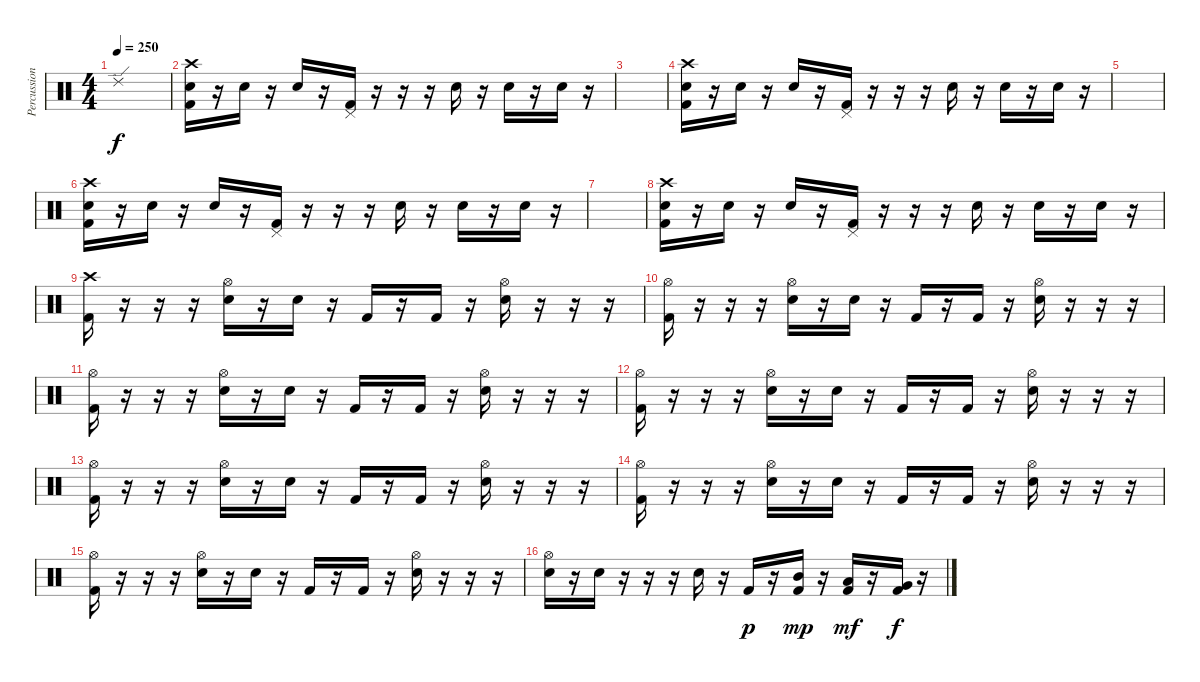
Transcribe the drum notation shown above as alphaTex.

\track ("Percussion" "Percussion") {instrument percussion}
\staff {score}
\articulation defaults
\ts (4 4)
\tempo 250
\clef neutral
\ks c "Ride (edge) 2".1{dy f}
|
("Crash high (hit)" "Kick (hit) 2" "Snare (hit) 2").16 r.16 "Snare (hit) 2".16 r.16 "Snare (hit) 2".16 r.16 ("Pedal Hi-Hat (hit)" "Kick (hit) 2").16 r.16 r.16 r.16 "Snare (hit) 2".16 r.16 "Snare (hit) 2".16 r.16 "Snare (hit) 2".16 r.16 |
|
("Crash high (hit)" "Kick (hit) 2" "Snare (hit) 2").16 r.16 "Snare (hit) 2".16 r.16 "Snare (hit) 2".16 r.16 ("Pedal Hi-Hat (hit)" "Kick (hit) 2").16 r.16 r.16 r.16 "Snare (hit) 2".16 r.16 "Snare (hit) 2".16 r.16 "Snare (hit) 2".16 r.16 |
|
("Crash high (hit)" "Kick (hit) 2" "Snare (hit) 2").16 r.16 "Snare (hit) 2".16 r.16 "Snare (hit) 2".16 r.16 ("Pedal Hi-Hat (hit)" "Kick (hit) 2").16 r.16 r.16 r.16 "Snare (hit) 2".16 r.16 "Snare (hit) 2".16 r.16 "Snare (hit) 2".16 r.16 |
|
("Crash high (hit)" "Kick (hit) 2" "Snare (hit) 2").16 r.16 "Snare (hit) 2".16 r.16 "Snare (hit) 2".16 r.16 ("Pedal Hi-Hat (hit)" "Kick (hit) 2").16 r.16 r.16 r.16 "Snare (hit) 2".16 r.16 "Snare (hit) 2".16 r.16 "Snare (hit) 2".16 r.16 |
("Crash high (hit)" "Kick (hit) 2").16 r.16 r.16 r.16 ("Hi-Hat (open)" "Snare (hit) 2").16 r.16 "Snare (hit) 2".16 r.16 "Kick (hit) 2".16 r.16 "Kick (hit) 2".16 r.16 ("Hi-Hat (open)" "Snare (hit) 2").16 r.16 r.16 r.16 |
("Hi-Hat (open)" "Kick (hit) 2").16 r.16 r.16 r.16 ("Hi-Hat (open)" "Snare (hit) 2").16 r.16 "Snare (hit) 2".16 r.16 "Kick (hit) 2".16 r.16 "Kick (hit) 2".16 r.16 ("Hi-Hat (open)" "Snare (hit) 2").16 r.16 r.16 r.16 |
("Hi-Hat (open)" "Kick (hit) 2").16 r.16 r.16 r.16 ("Hi-Hat (open)" "Snare (hit) 2").16 r.16 "Snare (hit) 2".16 r.16 "Kick (hit) 2".16 r.16 "Kick (hit) 2".16 r.16 ("Hi-Hat (open)" "Snare (hit) 2").16 r.16 r.16 r.16 |
("Hi-Hat (open)" "Kick (hit) 2").16 r.16 r.16 r.16 ("Hi-Hat (open)" "Snare (hit) 2").16 r.16 "Snare (hit) 2".16 r.16 "Kick (hit) 2".16 r.16 "Kick (hit) 2".16 r.16 ("Hi-Hat (open)" "Snare (hit) 2").16 r.16 r.16 r.16 |
("Hi-Hat (open)" "Kick (hit) 2").16 r.16 r.16 r.16 ("Hi-Hat (open)" "Snare (hit) 2").16 r.16 "Snare (hit) 2".16 r.16 "Kick (hit) 2".16 r.16 "Kick (hit) 2".16 r.16 ("Hi-Hat (open)" "Snare (hit) 2").16 r.16 r.16 r.16 |
("Hi-Hat (open)" "Kick (hit) 2").16 r.16 r.16 r.16 ("Hi-Hat (open)" "Snare (hit) 2").16 r.16 "Snare (hit) 2".16 r.16 "Kick (hit) 2".16 r.16 "Kick (hit) 2".16 r.16 ("Hi-Hat (open)" "Snare (hit) 2").16 r.16 r.16 r.16 |
("Hi-Hat (open)" "Kick (hit) 2").16 r.16 r.16 r.16 ("Hi-Hat (open)" "Snare (hit) 2").16 r.16 "Snare (hit) 2".16 r.16 "Kick (hit) 2".16 r.16 "Kick (hit) 2".16 r.16 ("Hi-Hat (open)" "Snare (hit) 2").16 r.16 r.16 r.16 |
("Hi-Hat (open)" "Snare (hit) 2").16 r.16 "Snare (hit) 2".16 r.16 r.16 r.16 "Snare (hit) 2".16 r.16 "Kick (hit) 2".16{dy p} r.16 ("Mid Tom (hit)" "Kick (hit) 2").16{dy mp} r.16 ("Low Tom (hit)" "Kick (hit) 2").16{dy mf} r.16 ("Very Low Tom (hit)" "Kick (hit) 2").16{dy f} r.16
